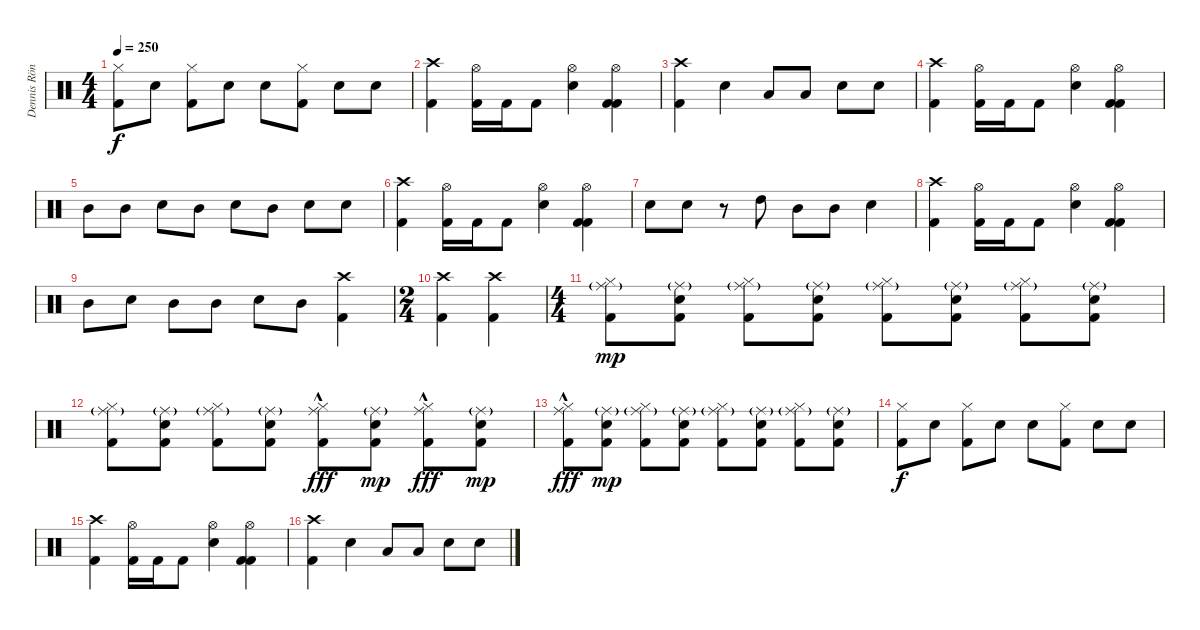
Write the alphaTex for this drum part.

\track ("Dennis Röndum" "Dennis Rön") {instrument percussion}
\staff {score}
\articulation defaults
\ts (4 4)
\tempo 250
\clef neutral
\ks c
("Hi-Hat (closed)" "Kick (hit) 2").8{dy f} "Snare (hit) 2".8 ("Hi-Hat (closed)" "Kick (hit) 2").8 "Snare (hit) 2".8 "Snare (hit) 2".8 ("Hi-Hat (closed)" "Kick (hit) 2").8 "Snare (hit) 2".8 "Snare (hit) 2".8 |
("Crash high (hit)" "Kick (hit) 2").4 ("Hi-Hat (open)" "Kick (hit) 2").16 "Kick (hit) 2".16 "Kick (hit) 2".8 ("Snare (hit) 2" "Hi-Hat (open)").4 ("Hi-Hat (open)" "Kick (hit) 2" "Kick (hit) 2").4 |
("Crash high (hit)" "Kick (hit) 2").4 "Snare (hit) 2".4 "Low Floor Tom (hit)".8 "Low Floor Tom (hit)".8 "Snare (hit) 2".8 "Snare (hit) 2".8 |
("Crash high (hit)" "Kick (hit) 2").4 ("Hi-Hat (open)" "Kick (hit) 2").16 "Kick (hit) 2".16 "Kick (hit) 2".8 ("Snare (hit) 2" "Hi-Hat (open)").4 ("Hi-Hat (open)" "Kick (hit) 2" "Kick (hit) 2").4 |
"Mid Tom (hit)".8 "Mid Tom (hit)".8 "Snare (hit) 2".8 "Mid Tom (hit)".8 "Snare (hit) 2".8 "Mid Tom (hit)".8 "Snare (hit) 2".8 "Snare (hit) 2".8 |
("Crash high (hit)" "Kick (hit) 2").4 ("Hi-Hat (open)" "Kick (hit) 2").16 "Kick (hit) 2".16 "Kick (hit) 2".8 ("Snare (hit) 2" "Hi-Hat (open)").4 ("Hi-Hat (open)" "Kick (hit) 2" "Kick (hit) 2").4 |
"Snare (hit) 2".8 "Snare (hit) 2".8 r.8 "High Tom (hit)".8 "Mid Tom (hit)".8 "Mid Tom (hit)".8 "Snare (hit) 2".4 |
("Crash high (hit)" "Kick (hit) 2").4 ("Hi-Hat (open)" "Kick (hit) 2").16 "Kick (hit) 2".16 "Kick (hit) 2".8 ("Snare (hit) 2" "Hi-Hat (open)").4 ("Hi-Hat (open)" "Kick (hit) 2" "Kick (hit) 2").4 |
"Mid Tom (hit)".8 "Snare (hit) 2".8 "Mid Tom (hit)".8 "Mid Tom (hit)".8 "Snare (hit) 2".8 "Mid Tom (hit)".8 ("Crash high (hit)" "Kick (hit) 2").4 |
\ts (2 4)
("Crash high (hit)" "Kick (hit) 2").4 ("Crash high (hit)" "Kick (hit) 2").4 |
\ts (4 4)
("Hi-Hat (closed)" "Ride (middle)"{g} "Kick (hit) 2").8{dy mp} ("Snare (hit) 2" "Ride (middle)"{g} "Kick (hit) 2").8 ("Hi-Hat (closed)" "Ride (middle)"{g} "Kick (hit) 2").8 ("Snare (hit) 2" "Ride (middle)"{g} "Kick (hit) 2").8 ("Hi-Hat (closed)" "Ride (middle)"{g} "Kick (hit) 2").8 ("Snare (hit) 2" "Ride (middle)"{g} "Kick (hit) 2").8 ("Hi-Hat (closed)" "Ride (middle)"{g} "Kick (hit) 2").8 ("Snare (hit) 2" "Ride (middle)"{g} "Kick (hit) 2").8 |
("Hi-Hat (closed)" "Ride (middle)"{g} "Kick (hit) 2").8 ("Snare (hit) 2" "Ride (middle)"{g} "Kick (hit) 2").8 ("Hi-Hat (closed)" "Ride (middle)"{g} "Kick (hit) 2").8 ("Snare (hit) 2" "Ride (middle)"{g} "Kick (hit) 2").8 ("Hi-Hat (closed)" "Ride (middle)"{hac} "Kick (hit) 2").8{dy fff} ("Snare (hit) 2" "Ride (middle)"{g} "Kick (hit) 2").8{dy mp} ("Hi-Hat (closed)" "Ride (middle)"{hac} "Kick (hit) 2").8{dy fff} ("Snare (hit) 2" "Ride (middle)"{g} "Kick (hit) 2").8{dy mp} |
("Hi-Hat (closed)" "Ride (middle)"{hac} "Kick (hit) 2").8{dy fff} ("Snare (hit) 2" "Ride (middle)"{g} "Kick (hit) 2").8{dy mp} ("Hi-Hat (closed)" "Ride (middle)"{g} "Kick (hit) 2").8 ("Snare (hit) 2" "Ride (middle)"{g} "Kick (hit) 2").8 ("Hi-Hat (closed)" "Ride (middle)"{g} "Kick (hit) 2").8 ("Snare (hit) 2" "Ride (middle)"{g} "Kick (hit) 2").8 ("Hi-Hat (closed)" "Ride (middle)"{g} "Kick (hit) 2").8 ("Snare (hit) 2" "Ride (middle)"{g} "Kick (hit) 2").8 |
("Hi-Hat (closed)" "Kick (hit) 2").8{dy f} "Snare (hit) 2".8 ("Hi-Hat (closed)" "Kick (hit) 2").8 "Snare (hit) 2".8 "Snare (hit) 2".8 ("Hi-Hat (closed)" "Kick (hit) 2").8 "Snare (hit) 2".8 "Snare (hit) 2".8 |
("Crash high (hit)" "Kick (hit) 2").4 ("Hi-Hat (open)" "Kick (hit) 2").16 "Kick (hit) 2".16 "Kick (hit) 2".8 ("Snare (hit) 2" "Hi-Hat (open)").4 ("Hi-Hat (open)" "Kick (hit) 2" "Kick (hit) 2").4 |
("Crash high (hit)" "Kick (hit) 2").4 "Snare (hit) 2".4 "Low Floor Tom (hit)".8 "Low Floor Tom (hit)".8 "Snare (hit) 2".8 "Snare (hit) 2".8
